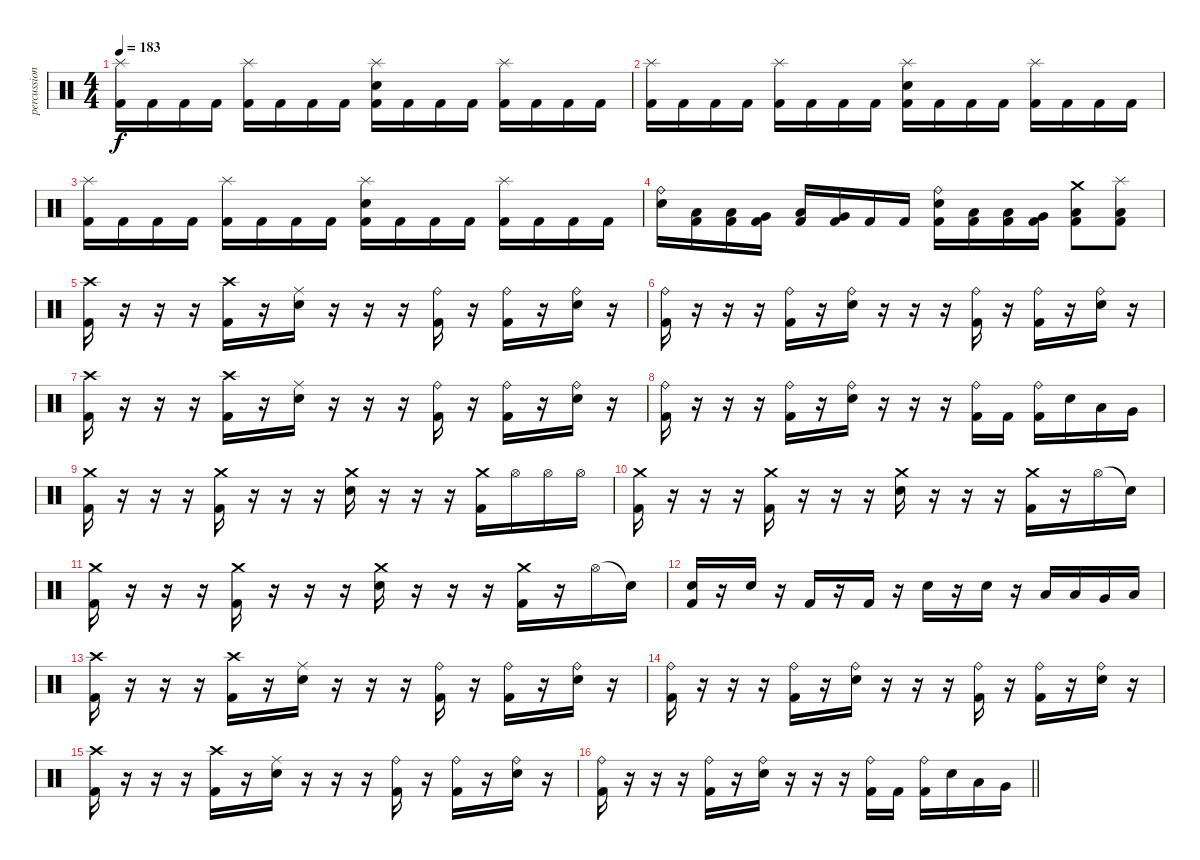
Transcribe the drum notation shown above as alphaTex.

\track ("percussion" "percussion") {instrument percussion}
\staff {score}
\articulation defaults
\ts (4 4)
\tempo 183
\clef neutral
\ks c
("Splash (hit)" "Kick (hit) 2").16{dy f} "Kick (hit) 2".16 "Kick (hit) 2".16 "Kick (hit) 2".16 ("Splash (hit)" "Kick (hit) 2").16 "Kick (hit) 2".16 "Kick (hit) 2".16 "Kick (hit) 2".16 ("Splash (hit)" "Electric Snare (hit)" "Kick (hit) 2").16 "Kick (hit) 2".16 "Kick (hit) 2".16 "Kick (hit) 2".16 ("Splash (hit)" "Kick (hit) 2").16 "Kick (hit) 2".16 "Kick (hit) 2".16 "Kick (hit) 2".16 |
("Splash (hit)" "Kick (hit) 2").16 "Kick (hit) 2".16 "Kick (hit) 2".16 "Kick (hit) 2".16 ("Splash (hit)" "Kick (hit) 2").16 "Kick (hit) 2".16 "Kick (hit) 2".16 "Kick (hit) 2".16 ("Splash (hit)" "Electric Snare (hit)" "Kick (hit) 2").16 "Kick (hit) 2".16 "Kick (hit) 2".16 "Kick (hit) 2".16 ("Splash (hit)" "Kick (hit) 2").16 "Kick (hit) 2".16 "Kick (hit) 2".16 "Kick (hit) 2".16 |
("Splash (hit)" "Kick (hit) 2").16 "Kick (hit) 2".16 "Kick (hit) 2".16 "Kick (hit) 2".16 ("Splash (hit)" "Kick (hit) 2").16 "Kick (hit) 2".16 "Kick (hit) 2".16 "Kick (hit) 2".16 ("Splash (hit)" "Electric Snare (hit)" "Kick (hit) 2").16 "Kick (hit) 2".16 "Kick (hit) 2".16 "Kick (hit) 2".16 ("Splash (hit)" "Kick (hit) 2").16 "Kick (hit) 2".16 "Kick (hit) 2".16 "Kick (hit) 2".16 |
("Ride (bell)" "Electric Snare (hit)").16 ("Low Tom (hit)" "Kick (hit) 2").16 ("Low Tom (hit)" "Kick (hit) 2").16 ("Very Low Tom (hit)" "Kick (hit) 2").16 ("Low Floor Tom (hit)" "Kick (hit) 2").16 ("Very Low Tom (hit)" "Kick (hit) 2").16 "Kick (hit) 2".16 "Kick (hit) 2".16 ("Ride (bell)" "Electric Snare (hit)" "Kick (hit) 2").16 ("Low Tom (hit)" "Kick (hit) 2").16 ("Low Tom (hit)" "Kick (hit) 2").16 ("Very Low Tom (hit)" "Kick (hit) 2").16 ("Crash medium (hit)" "Low Floor Tom (hit)" "Kick (hit) 2").8 ("Splash (hit)" "Low Floor Tom (hit)" "Kick (hit) 2").8 |
("Crash high (hit)" "Kick (hit) 2").16 r.16 r.16 r.16 ("Crash high (hit)" "Kick (hit) 2").16 r.16 ("Ride (middle)" "Electric Snare (hit)").16 r.16 r.16 r.16 ("Ride (bell)" "Kick (hit) 2").16 r.16 ("Ride (bell)" "Kick (hit) 2").16 r.16 ("Ride (bell)" "Electric Snare (hit)").16 r.16 |
("Ride (bell)" "Kick (hit) 2").16 r.16 r.16 r.16 ("Ride (bell)" "Kick (hit) 2").16 r.16 ("Ride (bell)" "Electric Snare (hit)").16 r.16 r.16 r.16 ("Ride (bell)" "Kick (hit) 2").16 r.16 ("Ride (bell)" "Kick (hit) 2").16 r.16 ("Ride (bell)" "Electric Snare (hit)").16 r.16 |
("Crash high (hit)" "Kick (hit) 2").16 r.16 r.16 r.16 ("Crash high (hit)" "Kick (hit) 2").16 r.16 ("Ride (middle)" "Electric Snare (hit)").16 r.16 r.16 r.16 ("Ride (bell)" "Kick (hit) 2").16 r.16 ("Ride (bell)" "Kick (hit) 2").16 r.16 ("Ride (bell)" "Electric Snare (hit)").16 r.16 |
("Ride (bell)" "Kick (hit) 2").16 r.16 r.16 r.16 ("Ride (bell)" "Kick (hit) 2").16 r.16 ("Ride (bell)" "Electric Snare (hit)").16 r.16 r.16 r.16 ("Ride (bell)" "Kick (hit) 2").16 "Kick (hit) 2".16 ("Ride (bell)" "Kick (hit) 2").16 "Electric Snare (hit)".16 "Low Tom (hit)".16 "Very Low Tom (hit)".16 |
("Crash medium (hit)" "Kick (hit) 2").16 r.16 r.16 r.16 ("Crash medium (hit)" "Kick (hit) 2").16 r.16 r.16 r.16 ("Crash medium (hit)" "Electric Snare (hit)").16 r.16 r.16 r.16 ("Crash medium (hit)" "Kick (hit) 2").16 "Hi-Hat (open)".16 "Hi-Hat (open)".16 "Hi-Hat (open)".16 |
("Crash medium (hit)" "Kick (hit) 2").16 r.16 r.16 r.16 ("Crash medium (hit)" "Kick (hit) 2").16 r.16 r.16 r.16 ("Crash medium (hit)" "Electric Snare (hit)").16 r.16 r.16 r.16 ("Crash medium (hit)" "Kick (hit) 2").16 r.16 "Hi-Hat (open)".16 "Snare (hit)"{t}.16 |
("Crash medium (hit)" "Kick (hit) 2").16 r.16 r.16 r.16 ("Crash medium (hit)" "Kick (hit) 2").16 r.16 r.16 r.16 ("Crash medium (hit)" "Electric Snare (hit)").16 r.16 r.16 r.16 ("Crash medium (hit)" "Kick (hit) 2").16 r.16 "Hi-Hat (open)".16 "Snare (hit)"{t}.16 |
("Electric Snare (hit)" "Kick (hit) 2").16 r.16 "Electric Snare (hit)".16 r.16 "Kick (hit) 2".16 r.16 "Kick (hit) 2".16 r.16 "Electric Snare (hit)".16 r.16 "Electric Snare (hit)".16 r.16 "Low Tom (hit)".16 "Low Tom (hit)".16 "Very Low Tom (hit)".16 "Low Floor Tom (hit)".16 |
("Crash high (hit)" "Kick (hit) 2").16 r.16 r.16 r.16 ("Crash high (hit)" "Kick (hit) 2").16 r.16 ("Ride (middle)" "Electric Snare (hit)").16 r.16 r.16 r.16 ("Ride (bell)" "Kick (hit) 2").16 r.16 ("Ride (bell)" "Kick (hit) 2").16 r.16 ("Ride (bell)" "Electric Snare (hit)").16 r.16 |
("Ride (bell)" "Kick (hit) 2").16 r.16 r.16 r.16 ("Ride (bell)" "Kick (hit) 2").16 r.16 ("Ride (bell)" "Electric Snare (hit)").16 r.16 r.16 r.16 ("Ride (bell)" "Kick (hit) 2").16 r.16 ("Ride (bell)" "Kick (hit) 2").16 r.16 ("Ride (bell)" "Electric Snare (hit)").16 r.16 |
("Crash high (hit)" "Kick (hit) 2").16 r.16 r.16 r.16 ("Crash high (hit)" "Kick (hit) 2").16 r.16 ("Ride (middle)" "Electric Snare (hit)").16 r.16 r.16 r.16 ("Ride (bell)" "Kick (hit) 2").16 r.16 ("Ride (bell)" "Kick (hit) 2").16 r.16 ("Ride (bell)" "Electric Snare (hit)").16 r.16 |
\barLineRight lightlight
("Ride (bell)" "Kick (hit) 2").16 r.16 r.16 r.16 ("Ride (bell)" "Kick (hit) 2").16 r.16 ("Ride (bell)" "Electric Snare (hit)").16 r.16 r.16 r.16 ("Ride (bell)" "Kick (hit) 2").16 "Kick (hit) 2".16 ("Ride (bell)" "Kick (hit) 2").16 "Electric Snare (hit)".16 "Low Tom (hit)".16 "Very Low Tom (hit)".16
